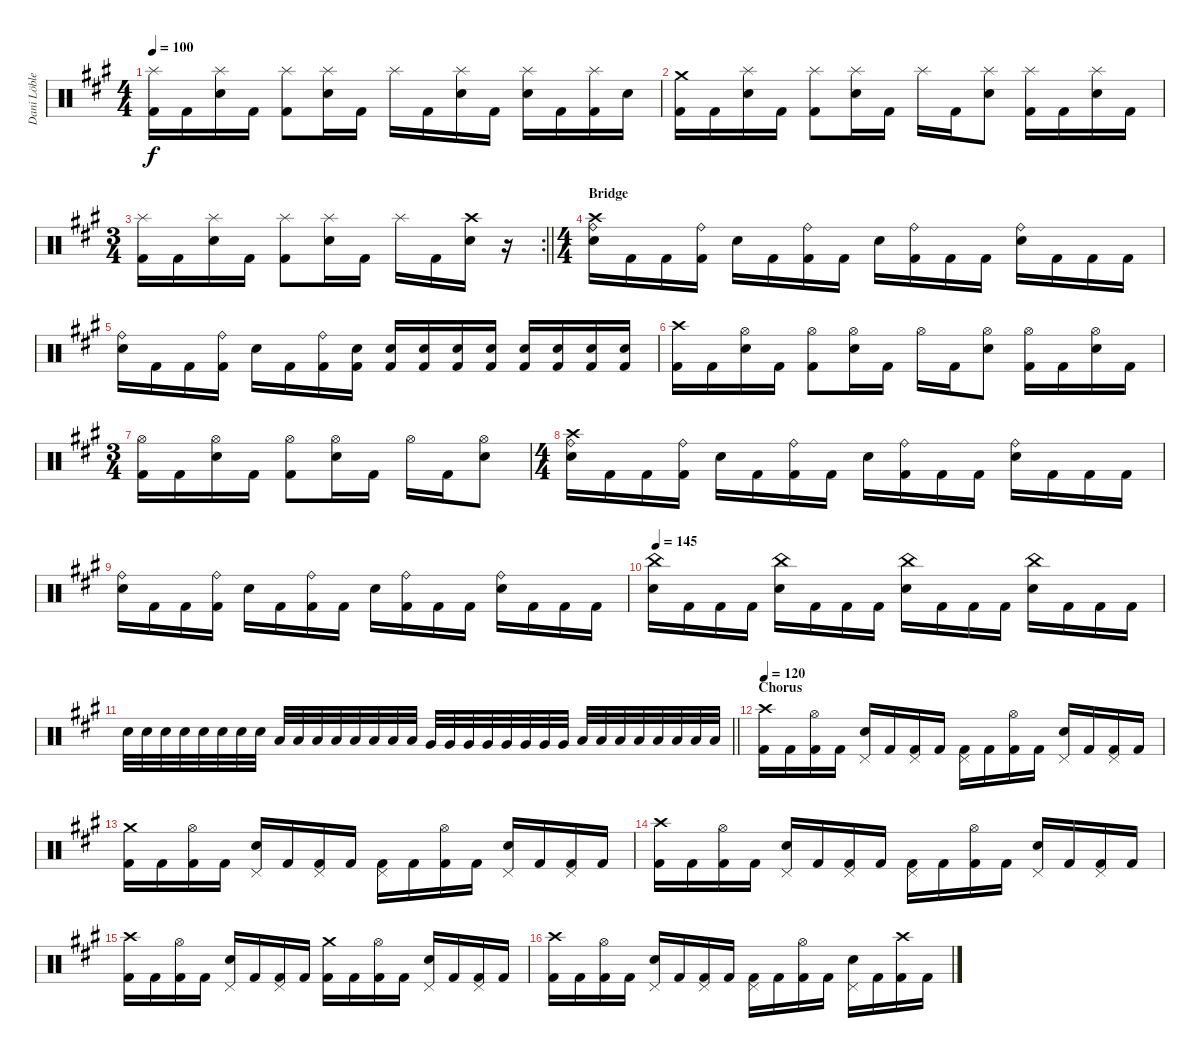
\track ("Dani Löble" "Dani Löble") {instrument percussion}
\staff {score}
\articulation defaults
\ts (4 4)
\tempo 100
\clef neutral
\ks f#minor
("Splash (hit)" "Kick (hit) 2").16{dy f} "Kick (hit) 2".16 ("Splash (hit)" "Snare (hit) 2").16 "Kick (hit) 2".16 ("Splash (hit)" "Kick (hit) 2").8 ("Splash (hit)" "Snare (hit) 2").16 "Kick (hit) 2".16 "Splash (hit)".16 "Kick (hit) 2".16 ("Splash (hit)" "Snare (hit) 2").16 "Kick (hit) 2".16 ("Splash (hit)" "Snare (hit) 2").16 "Kick (hit) 2".16 ("Splash (hit)" "Kick (hit) 2").16 "Snare (hit) 2".16 |
("Crash medium (hit)" "Kick (hit) 2").16 "Kick (hit) 2".16 ("Splash (hit)" "Snare (hit) 2").16 "Kick (hit) 2".16 ("Splash (hit)" "Kick (hit) 2").8 ("Splash (hit)" "Snare (hit) 2").16 "Kick (hit) 2".16 "Splash (hit)".16 "Kick (hit) 2".16 ("Splash (hit)" "Snare (hit) 2").8 ("Splash (hit)" "Kick (hit) 2").16 "Kick (hit) 2".16 ("Splash (hit)" "Snare (hit) 2").16 "Kick (hit) 2".16 |
\rc 2
\ts (3 4)
\barLineRight lightlight
("Splash (hit)" "Kick (hit) 2").16 "Kick (hit) 2".16 ("Splash (hit)" "Snare (hit) 2").16 "Kick (hit) 2".16 ("Splash (hit)" "Kick (hit) 2").8 ("Splash (hit)" "Snare (hit) 2").16 "Kick (hit) 2".16 "Splash (hit)".16 "Kick (hit) 2".16 ("Crash high (hit)" "Snare (hit) 2").16 r.16 |
\ts (4 4)
\section ("" "Bridge")
("Ride (bell)" "Crash high (hit)" "Snare (hit) 2").16 "Kick (hit) 2".16 "Kick (hit) 2".16 ("Ride (bell)" "Kick (hit) 2").16 "Snare (hit) 2".16 "Kick (hit) 2".16 ("Ride (bell)" "Kick (hit) 2").16 "Kick (hit) 2".16 "Snare (hit) 2".16 ("Ride (bell)" "Kick (hit) 2").16 "Kick (hit) 2".16 "Kick (hit) 2".16 ("Ride (bell)" "Snare (hit) 2").16 "Kick (hit) 2".16 "Kick (hit) 2".16 "Kick (hit) 2".16 |
("Ride (bell)" "Snare (hit) 2").16 "Kick (hit) 2".16 "Kick (hit) 2".16 ("Ride (bell)" "Kick (hit) 2").16 "Snare (hit) 2".16 "Kick (hit) 2".16 ("Ride (bell)" "Kick (hit) 2").16 ("Snare (hit) 2" "Kick (hit) 2").16 ("Snare (hit) 2" "Kick (hit) 2").16 ("Snare (hit) 2" "Kick (hit) 2").16 ("Snare (hit) 2" "Kick (hit) 2").16 ("Snare (hit) 2" "Kick (hit) 2").16 ("Snare (hit) 2" "Kick (hit) 2").16 ("Snare (hit) 2" "Kick (hit) 2").16 ("Snare (hit) 2" "Kick (hit) 2").16 ("Snare (hit) 2" "Kick (hit) 2").16 |
("Crash high (hit)" "Kick (hit) 2").16 "Kick (hit) 2".16 ("Hi-Hat (open)" "Snare (hit) 2").16 "Kick (hit) 2".16 ("Hi-Hat (open)" "Kick (hit) 2").8 ("Hi-Hat (open)" "Snare (hit) 2").16 "Kick (hit) 2".16 "Hi-Hat (open)".16 "Kick (hit) 2".16 ("Hi-Hat (open)" "Snare (hit) 2").8 ("Hi-Hat (open)" "Kick (hit) 2").16 "Kick (hit) 2".16 ("Hi-Hat (open)" "Snare (hit) 2").16 "Kick (hit) 2".16 |
\ts (3 4)
("Hi-Hat (open)" "Kick (hit) 2").16 "Kick (hit) 2".16 ("Hi-Hat (open)" "Snare (hit) 2").16 "Kick (hit) 2".16 ("Hi-Hat (open)" "Kick (hit) 2").8 ("Hi-Hat (open)" "Snare (hit) 2").16 "Kick (hit) 2".16 "Hi-Hat (open)".16 "Kick (hit) 2".16 ("Hi-Hat (open)" "Snare (hit) 2").8 |
\ts (4 4)
("Ride (bell)" "Crash high (hit)" "Snare (hit) 2").16 "Kick (hit) 2".16 "Kick (hit) 2".16 ("Ride (bell)" "Kick (hit) 2").16 "Snare (hit) 2".16 "Kick (hit) 2".16 ("Ride (bell)" "Kick (hit) 2").16 "Kick (hit) 2".16 "Snare (hit) 2".16 ("Ride (bell)" "Kick (hit) 2").16 "Kick (hit) 2".16 "Kick (hit) 2".16 ("Ride (bell)" "Snare (hit) 2").16 "Kick (hit) 2".16 "Kick (hit) 2".16 "Kick (hit) 2".16 |
("Ride (bell)" "Snare (hit) 2").16 "Kick (hit) 2".16 "Kick (hit) 2".16 ("Ride (bell)" "Kick (hit) 2").16 "Snare (hit) 2".16 "Kick (hit) 2".16 ("Ride (bell)" "Kick (hit) 2").16 "Kick (hit) 2".16 "Snare (hit) 2".16 ("Ride (bell)" "Kick (hit) 2").16 "Kick (hit) 2".16 "Kick (hit) 2".16 ("Ride (bell)" "Snare (hit) 2").16 "Kick (hit) 2".16 "Kick (hit) 2".16 "Kick (hit) 2".16 |
\tempo 145
("China (hit)" "Snare (hit) 2").16 "Kick (hit) 2".16 "Kick (hit) 2".16 "Kick (hit) 2".16 ("China (hit)" "Snare (hit) 2").16 "Kick (hit) 2".16 "Kick (hit) 2".16 "Kick (hit) 2".16 ("China (hit)" "Snare (hit) 2").16 "Kick (hit) 2".16 "Kick (hit) 2".16 "Kick (hit) 2".16 ("China (hit)" "Snare (hit) 2").16 "Kick (hit) 2".16 "Kick (hit) 2".16 "Kick (hit) 2".16 |
\barLineRight lightlight "Snare (hit) 2".32 "Snare (hit) 2".32 "Snare (hit) 2".32 "Snare (hit) 2".32 "Snare (hit) 2".32 "Snare (hit) 2".32 "Snare (hit) 2".32 "Snare (hit) 2".32 "Low Tom (hit)".32 "Low Tom (hit)".32 "Low Tom (hit)".32 "Low Tom (hit)".32 "Low Tom (hit)".32 "Low Tom (hit)".32 "Low Tom (hit)".32 "Low Tom (hit)".32 "Very Low Tom (hit)".32 "Very Low Tom (hit)".32 "Very Low Tom (hit)".32 "Very Low Tom (hit)".32 "Very Low Tom (hit)".32 "Very Low Tom (hit)".32 "Very Low Tom (hit)".32 "Very Low Tom (hit)".32 "Low Floor Tom (hit)".32 "Low Floor Tom (hit)".32 "Low Floor Tom (hit)".32 "Low Floor Tom (hit)".32 "Low Floor Tom (hit)".32 "Low Floor Tom (hit)".32 "Low Floor Tom (hit)".32 "Low Floor Tom (hit)".32
|
\section ("" "Chorus")
\tempo 120
("Crash high (hit)" "Kick (hit) 2").16 "Kick (hit) 2".16 ("Hi-Hat (open)" "Kick (hit) 2").16 "Kick (hit) 2".16 ("Pedal Hi-Hat (hit)" "Snare (hit) 2").16 "Kick (hit) 2".16 ("Pedal Hi-Hat (hit)" "Kick (hit) 2").16 "Kick (hit) 2".16 ("Pedal Hi-Hat (hit)" "Kick (hit) 2").16 "Kick (hit) 2".16 ("Hi-Hat (open)" "Kick (hit) 2").16 "Kick (hit) 2".16 ("Pedal Hi-Hat (hit)" "Snare (hit) 2").16 "Kick (hit) 2".16 ("Pedal Hi-Hat (hit)" "Kick (hit) 2").16 "Kick (hit) 2".16 |
("Crash medium (hit)" "Kick (hit) 2").16 "Kick (hit) 2".16 ("Hi-Hat (open)" "Kick (hit) 2").16 "Kick (hit) 2".16 ("Pedal Hi-Hat (hit)" "Snare (hit) 2").16 "Kick (hit) 2".16 ("Pedal Hi-Hat (hit)" "Kick (hit) 2").16 "Kick (hit) 2".16 ("Pedal Hi-Hat (hit)" "Kick (hit) 2").16 "Kick (hit) 2".16 ("Hi-Hat (open)" "Kick (hit) 2").16 "Kick (hit) 2".16 ("Pedal Hi-Hat (hit)" "Snare (hit) 2").16 "Kick (hit) 2".16 ("Pedal Hi-Hat (hit)" "Kick (hit) 2").16 "Kick (hit) 2".16 |
("Crash high (hit)" "Kick (hit) 2").16 "Kick (hit) 2".16 ("Hi-Hat (open)" "Kick (hit) 2").16 "Kick (hit) 2".16 ("Pedal Hi-Hat (hit)" "Snare (hit) 2").16 "Kick (hit) 2".16 ("Pedal Hi-Hat (hit)" "Kick (hit) 2").16 "Kick (hit) 2".16 ("Pedal Hi-Hat (hit)" "Kick (hit) 2").16 "Kick (hit) 2".16 ("Hi-Hat (open)" "Kick (hit) 2").16 "Kick (hit) 2".16 ("Pedal Hi-Hat (hit)" "Snare (hit) 2").16 "Kick (hit) 2".16 ("Pedal Hi-Hat (hit)" "Kick (hit) 2").16 "Kick (hit) 2".16 |
("Crash high (hit)" "Kick (hit) 2").16 "Kick (hit) 2".16 ("Hi-Hat (open)" "Kick (hit) 2").16 "Kick (hit) 2".16 ("Pedal Hi-Hat (hit)" "Snare (hit) 2").16 "Kick (hit) 2".16 ("Pedal Hi-Hat (hit)" "Kick (hit) 2").16 "Kick (hit) 2".16 ("Crash medium (hit)" "Kick (hit) 2").16 "Kick (hit) 2".16 ("Hi-Hat (open)" "Kick (hit) 2").16 "Kick (hit) 2".16 ("Pedal Hi-Hat (hit)" "Snare (hit) 2").16 "Kick (hit) 2".16 ("Pedal Hi-Hat (hit)" "Kick (hit) 2").16 "Kick (hit) 2".16 |
("Crash high (hit)" "Kick (hit) 2").16 "Kick (hit) 2".16 ("Hi-Hat (open)" "Kick (hit) 2").16 "Kick (hit) 2".16 ("Pedal Hi-Hat (hit)" "Snare (hit) 2").16 "Kick (hit) 2".16 ("Pedal Hi-Hat (hit)" "Kick (hit) 2").16 "Kick (hit) 2".16 ("Pedal Hi-Hat (hit)" "Kick (hit) 2").16 "Kick (hit) 2".16 ("Hi-Hat (open)" "Kick (hit) 2").16 "Kick (hit) 2".16 ("Pedal Hi-Hat (hit)" "Snare (hit) 2").16 "Kick (hit) 2".16 ("Crash high (hit)" "Kick (hit) 2").16 "Kick (hit) 2".16
